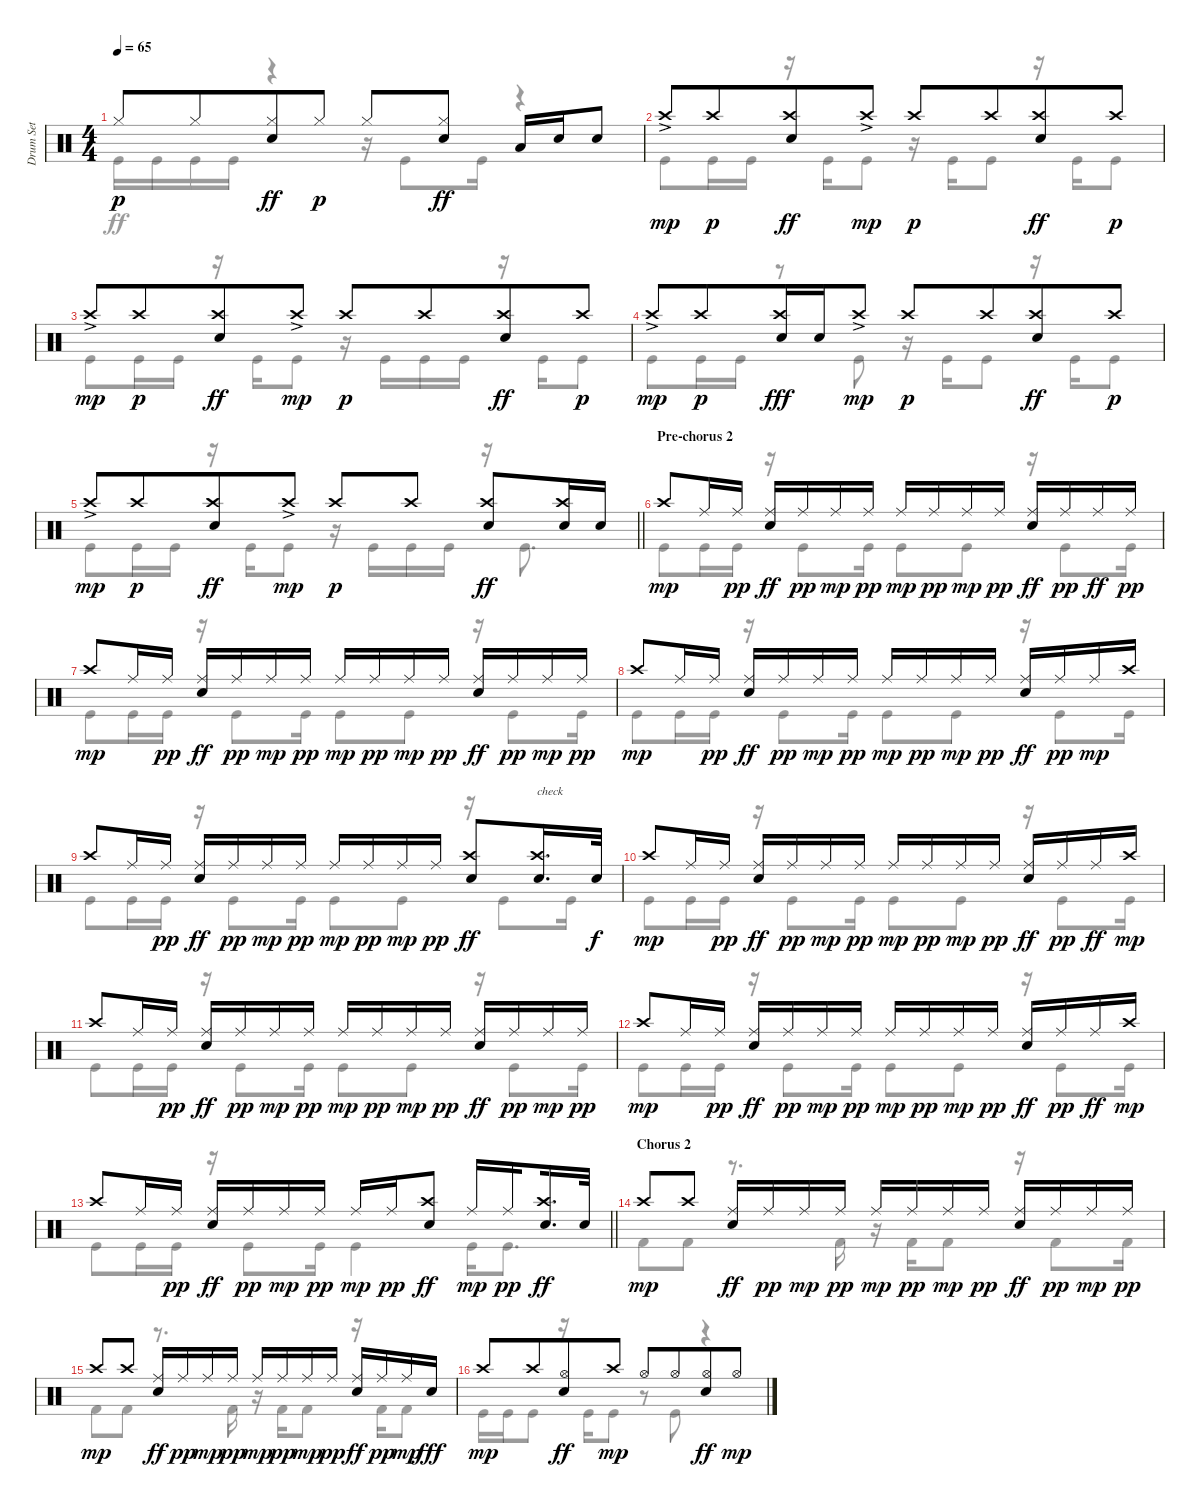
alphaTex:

\track ("Drum Set" "Drum Set") {instrument percussion}
\staff {score}
\articulation defaults
\voice
\ts (4 4)
\tempo 65
\clef neutral
\ks c "Hi-Hat (closed)".8{dy p} "Hi-Hat (closed)".8{beam merge}
("Hi-Hat (closed)" "Electric Snare (hit)").8{dy ff} "Hi-Hat (closed)".8{dy p} "Hi-Hat (closed)".8 ("Hi-Hat (closed)" "Electric Snare (hit)").8{dy ff} "Low Tom (hit)".16 "Electric Snare (hit)".16 "Electric Snare (hit)".8 |
"Crash high (hit)"{ac}.8{dy mp} "Crash high (hit)".8{dy p beam merge} ("Crash high (hit)" "Electric Snare (hit)").8{dy ff} "Crash high (hit)"{ac}.8{dy mp} "Crash high (hit)".8{dy p} "Crash high (hit)".8{beam merge} ("Crash high (hit)" "Electric Snare (hit)").8{dy ff} "Crash high (hit)".8{dy p} |
"Crash high (hit)"{ac}.8{dy mp} "Crash high (hit)".8{dy p beam merge} ("Crash high (hit)" "Electric Snare (hit)").8{dy ff} "Crash high (hit)"{ac}.8{dy mp} "Crash high (hit)".8{dy p} "Crash high (hit)".8{beam merge} ("Crash high (hit)" "Electric Snare (hit)").8{dy ff} "Crash high (hit)".8{dy p} |
"Crash high (hit)"{ac}.8{dy mp} "Crash high (hit)".8{dy p beam merge} ("Crash high (hit)" "Electric Snare (hit)").16{dy fff} "Electric Snare (hit)".16 "Crash high (hit)"{ac}.8{dy mp} "Crash high (hit)".8{dy p} "Crash high (hit)".8{beam merge} ("Crash high (hit)" "Electric Snare (hit)").8{dy ff} "Crash high (hit)".8{dy p} |
\barLineRight lightlight "Crash high (hit)"{ac}.8{dy mp} "Crash high (hit)".8{dy p beam merge}
("Crash high (hit)" "Electric Snare (hit)").8{dy ff} "Crash high (hit)"{ac}.8{dy mp} "Crash high (hit)".8{dy p} "Crash high (hit)".8{beam split} ("Crash high (hit)" "Electric Snare (hit)").8{dy ff} ("Crash high (hit)" "Electric Snare (hit)").16 "Electric Snare (hit)".16 |
\section ("" "Pre-chorus 2")
"Crash high (hit)".8{dy mp} "Ride (middle)".16 "Ride (middle)".16{dy pp} ("Ride (middle)" "Electric Snare (hit)").16{dy ff} "Ride (middle)".16{dy pp} "Ride (middle)".16{dy mp} "Ride (middle)".16{dy pp} "Ride (middle)".16{dy mp} "Ride (middle)".16{dy pp} "Ride (middle)".16{dy mp} "Ride (middle)".16{dy pp} ("Ride (middle)" "Electric Snare (hit)").16{dy ff} "Ride (middle)".16{dy pp} "Ride (middle)".16{dy ff} "Ride (middle)".16{dy pp} |
"Crash high (hit)".8{dy mp} "Ride (middle)".16 "Ride (middle)".16{dy pp} ("Ride (middle)" "Electric Snare (hit)").16{dy ff} "Ride (middle)".16{dy pp} "Ride (middle)".16{dy mp} "Ride (middle)".16{dy pp} "Ride (middle)".16{dy mp} "Ride (middle)".16{dy pp} "Ride (middle)".16{dy mp} "Ride (middle)".16{dy pp} ("Ride (middle)" "Electric Snare (hit)").16{dy ff} "Ride (middle)".16{dy pp} "Ride (middle)".16{dy mp} "Ride (middle)".16{dy pp} |
"Crash high (hit)".8{dy mp} "Ride (middle)".16 "Ride (middle)".16{dy pp} ("Ride (middle)" "Electric Snare (hit)").16{dy ff} "Ride (middle)".16{dy pp} "Ride (middle)".16{dy mp} "Ride (middle)".16{dy pp} "Ride (middle)".16{dy mp} "Ride (middle)".16{dy pp} "Ride (middle)".16{dy mp} "Ride (middle)".16{dy pp} ("Ride (middle)" "Electric Snare (hit)").16{dy ff} "Ride (middle)".16{dy pp} "Ride (middle)".16{dy mp} "Crash high (hit)".16 |
"Crash high (hit)".8 "Ride (middle)".16 "Ride (middle)".16{dy pp} ("Ride (middle)" "Electric Snare (hit)").16{dy ff} "Ride (middle)".16{dy pp} "Ride (middle)".16{dy mp} "Ride (middle)".16{dy pp} "Ride (middle)".16{dy mp} "Ride (middle)".16{dy pp} "Ride (middle)".16{dy mp} "Ride (middle)".16{dy pp} ("Crash high (hit)" "Electric Snare (hit)").8{dy ff} ("Electric Snare (hit)" "Crash high (hit)").16{d txt "check"} "Electric Snare (hit)".32{dy f} |
"Crash high (hit)".8{dy mp} "Ride (middle)".16 "Ride (middle)".16{dy pp} ("Ride (middle)" "Electric Snare (hit)").16{dy ff} "Ride (middle)".16{dy pp} "Ride (middle)".16{dy mp} "Ride (middle)".16{dy pp} "Ride (middle)".16{dy mp} "Ride (middle)".16{dy pp} "Ride (middle)".16{dy mp} "Ride (middle)".16{dy pp} ("Ride (middle)" "Electric Snare (hit)").16{dy ff} "Ride (middle)".16{dy pp} "Ride (middle)".16{dy ff} "Crash high (hit)".16{dy mp} |
"Crash high (hit)".8 "Ride (middle)".16 "Ride (middle)".16{dy pp} ("Ride (middle)" "Electric Snare (hit)").16{dy ff} "Ride (middle)".16{dy pp} "Ride (middle)".16{dy mp} "Ride (middle)".16{dy pp} "Ride (middle)".16{dy mp} "Ride (middle)".16{dy pp} "Ride (middle)".16{dy mp} "Ride (middle)".16{dy pp} ("Ride (middle)" "Electric Snare (hit)").16{dy ff} "Ride (middle)".16{dy pp} "Ride (middle)".16{dy mp} "Ride (middle)".16{dy pp} |
"Crash high (hit)".8{dy mp} "Ride (middle)".16 "Ride (middle)".16{dy pp} ("Ride (middle)" "Electric Snare (hit)").16{dy ff} "Ride (middle)".16{dy pp} "Ride (middle)".16{dy mp} "Ride (middle)".16{dy pp} "Ride (middle)".16{dy mp} "Ride (middle)".16{dy pp} "Ride (middle)".16{dy mp} "Ride (middle)".16{dy pp} ("Ride (middle)" "Electric Snare (hit)").16{dy ff} "Ride (middle)".16{dy pp} "Ride (middle)".16{dy ff} "Crash high (hit)".16{dy mp} |
\barLineRight lightlight "Crash high (hit)".8 "Ride (middle)".16 "Ride (middle)".16{dy pp}
("Ride (middle)" "Electric Snare (hit)").16{dy ff} "Ride (middle)".16{dy pp} "Ride (middle)".16{dy mp} "Ride (middle)".16{dy pp} "Ride (middle)".16{dy mp} "Ride (middle)".16{dy pp} ("Crash high (hit)" "Electric Snare (hit)").8{dy ff} "Ride (middle)".16{dy mp} "Ride (middle)".16{dy pp beam splitsecondary} ("Crash high (hit)" "Electric Snare (hit)").16{d dy ff} "Electric Snare (hit)".32 |
\section ("" "Chorus 2")
"Crash high (hit)".8{dy mp} "Crash high (hit)".8 ("Ride (middle)" "Electric Snare (hit)").16{dy ff} "Ride (middle)".16{dy pp} "Ride (middle)".16{dy mp} "Ride (middle)".16{dy pp} "Ride (middle)".16{dy mp} "Ride (middle)".16{dy pp} "Ride (middle)".16{dy mp} "Ride (middle)".16{dy pp} ("Ride (middle)" "Electric Snare (hit)").16{dy ff} "Ride (middle)".16{dy pp} "Ride (middle)".16{dy mp} "Ride (middle)".16{dy pp} |
"Crash high (hit)".8{dy mp} "Crash high (hit)".8 ("Ride (middle)" "Electric Snare (hit)").16{dy ff} "Ride (middle)".16{dy pp} "Ride (middle)".16{dy mp} "Ride (middle)".16{dy pp} "Ride (middle)".16{dy mp} "Ride (middle)".16{dy pp} "Ride (middle)".16{dy mp} "Ride (middle)".16{dy pp} ("Ride (middle)" "Electric Snare (hit)").16{dy ff} "Ride (middle)".16{dy pp} "Ride (middle)".16{dy mp} "Electric Snare (hit)".16{dy fff} |
"Crash high (hit)".8{dy mp} "Crash high (hit)".8{beam merge} ("Hi-Hat (open)" "Electric Snare (hit)").8{dy ff} "Crash high (hit)".8{dy mp} "Hi-Hat (open)".8 "Hi-Hat (open)".8{beam merge} ("Hi-Hat (open)" "Electric Snare (hit)").8{dy ff} "Hi-Hat (open)".8{dy mp}
\voice
\clef neutral
\ottava regular
\simile none
\ks c "Kick (hit)".16{dy ff} "Kick (hit)".16 "Kick (hit)".16 "Kick (hit)".16
r.4 r.16 "Kick (hit)".8 "Kick (hit)".16 r.4 |
"Kick (hit)".8 "Kick (hit)".16 "Kick (hit)".16 r.16 "Kick (hit)".16 "Kick (hit)".8 r.16 "Kick (hit)".16 "Kick (hit)".8 r.16 "Kick (hit)".16 "Kick (hit)".8 |
"Kick (hit)".8 "Kick (hit)".16 "Kick (hit)".16 r.16 "Kick (hit)".16 "Kick (hit)".8 r.16 "Kick (hit)".16 "Kick (hit)".16 "Kick (hit)".16 r.16 "Kick (hit)".16 "Kick (hit)".8 |
"Kick (hit)".8 "Kick (hit)".16 "Kick (hit)".16 r.8 "Kick (hit)".8 r.16 "Kick (hit)".16 "Kick (hit)".8 r.16 "Kick (hit)".16 "Kick (hit)".8 |
\barLineRight lightlight "Kick (hit)".8 "Kick (hit)".16 "Kick (hit)".16
r.16 "Kick (hit)".16 "Kick (hit)".8 r.16 "Kick (hit)".16 "Kick (hit)".16 "Kick (hit)".16 r.16 "Kick (hit)".8{d} |
"Kick (hit)".8 "Kick (hit)".16 "Kick (hit)".16 r.16 "Kick (hit)".8 "Kick (hit)".16 "Kick (hit)".8 "Kick (hit)".8 r.16 "Kick (hit)".8 "Kick (hit)".16 |
"Kick (hit)".8 "Kick (hit)".16 "Kick (hit)".16 r.16 "Kick (hit)".8 "Kick (hit)".16 "Kick (hit)".8 "Kick (hit)".8 r.16 "Kick (hit)".8 "Kick (hit)".16 |
"Kick (hit)".8 "Kick (hit)".16 "Kick (hit)".16 r.16 "Kick (hit)".8 "Kick (hit)".16 "Kick (hit)".8 "Kick (hit)".8 r.16 "Kick (hit)".8 "Kick (hit)".16 |
"Kick (hit)".8 "Kick (hit)".16 "Kick (hit)".16 r.16 "Kick (hit)".8 "Kick (hit)".16 "Kick (hit)".8 "Kick (hit)".8 r.16 "Kick (hit)".8 "Kick (hit)".16 |
"Kick (hit)".8 "Kick (hit)".16 "Kick (hit)".16 r.16 "Kick (hit)".8 "Kick (hit)".16 "Kick (hit)".8 "Kick (hit)".8 r.16 "Kick (hit)".8 "Kick (hit)".16 |
"Kick (hit)".8 "Kick (hit)".16 "Kick (hit)".16 r.16 "Kick (hit)".8 "Kick (hit)".16 "Kick (hit)".8 "Kick (hit)".8 r.16 "Kick (hit)".8 "Kick (hit)".16 |
"Kick (hit)".8 "Kick (hit)".16 "Kick (hit)".16 r.16 "Kick (hit)".8 "Kick (hit)".16 "Kick (hit)".8 "Kick (hit)".8 r.16 "Kick (hit)".8 "Kick (hit)".16 |
\barLineRight lightlight "Kick (hit)".8 "Kick (hit)".16 "Kick (hit)".16
r.16 "Kick (hit)".8 "Kick (hit)".16 "Kick (hit)".4 "Kick (hit)".16 "Kick (hit)".8{d} |
"Kick (hit) 2".8 "Kick (hit) 2".8 r.8{d} "Kick (hit) 2".16 r.16 "Kick (hit) 2".16 "Kick (hit) 2".8 r.16 "Kick (hit) 2".8 "Kick (hit) 2".16 |
"Kick (hit) 2".8 "Kick (hit) 2".8 r.8{d} "Kick (hit) 2".16 r.16 "Kick (hit) 2".16 "Kick (hit) 2".8 r.16 "Kick (hit) 2".16 "Kick (hit) 2".8 |
"Kick (hit)".16 "Kick (hit)".16 "Kick (hit)".8 r.16 "Kick (hit)".16 "Kick (hit)".8 r.8 "Kick (hit)".8 r.4
